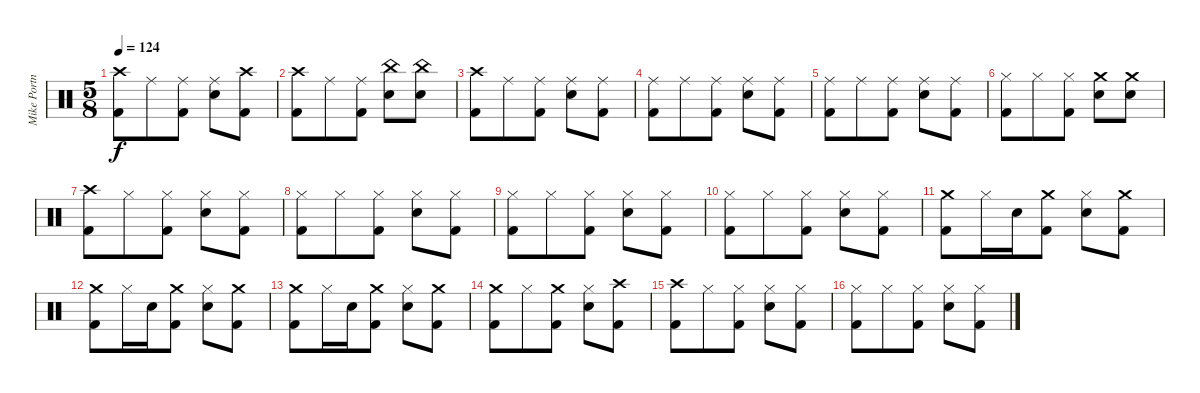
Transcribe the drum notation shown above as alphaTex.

\track ("Mike Portnoy - Drums" "Mike Portn") {instrument percussion}
\staff {score}
\articulation defaults
\ts (5 8)
\tempo 124
\clef neutral
\ks c
("Crash high (hit)" "Kick (hit) 2").8{dy f} "Ride (middle)".8 ("Ride (middle)" "Kick (hit) 2").8 ("Ride (middle)" "Electric Snare (hit)").8 ("Crash high (hit)" "Kick (hit) 2").8 |
("Crash high (hit)" "Kick (hit) 2").8 "Ride (middle)".8 ("Ride (middle)" "Kick (hit) 2").8 ("China (hit)" "Electric Snare (hit)").8 ("China (hit)" "Electric Snare (hit)").8 |
("Crash high (hit)" "Kick (hit) 2").8 "Ride (middle)".8 ("Ride (middle)" "Kick (hit) 2").8 ("Ride (middle)" "Electric Snare (hit)").8 ("Ride (middle)" "Kick (hit) 2").8 |
("Ride (middle)" "Kick (hit) 2").8 "Ride (middle)".8 ("Ride (middle)" "Kick (hit) 2").8 ("Ride (middle)" "Electric Snare (hit)").8 ("Ride (middle)" "Kick (hit) 2").8 |
("Ride (middle)" "Kick (hit) 2").8 "Ride (middle)".8 ("Ride (middle)" "Kick (hit) 2").8 ("Ride (middle)" "Electric Snare (hit)").8 ("Ride (middle)" "Kick (hit) 2").8 |
("Hi-Hat (closed)" "Kick (hit) 2").8 "Hi-Hat (closed)".8 ("Hi-Hat (closed)" "Kick (hit) 2").8 ("Crash medium (hit)" "Electric Snare (hit)").8 ("Crash medium (hit)" "Electric Snare (hit)").8 |
("Crash high (hit)" "Kick (hit) 2").8 "Hi-Hat (closed)".8 ("Hi-Hat (closed)" "Kick (hit) 2").8 ("Hi-Hat (closed)" "Electric Snare (hit)").8 ("Hi-Hat (closed)" "Kick (hit) 2").8 |
("Hi-Hat (closed)" "Kick (hit) 2").8 "Hi-Hat (closed)".8 ("Hi-Hat (closed)" "Kick (hit) 2").8 ("Hi-Hat (closed)" "Electric Snare (hit)").8 ("Hi-Hat (closed)" "Kick (hit) 2").8 |
("Hi-Hat (closed)" "Kick (hit) 2").8 "Hi-Hat (closed)".8 ("Hi-Hat (closed)" "Kick (hit) 2").8 ("Hi-Hat (closed)" "Electric Snare (hit)").8 ("Hi-Hat (closed)" "Kick (hit) 2").8 |
("Hi-Hat (closed)" "Kick (hit) 2").8 "Hi-Hat (closed)".8 ("Hi-Hat (closed)" "Kick (hit) 2").8 ("Hi-Hat (closed)" "Electric Snare (hit)").8 ("Hi-Hat (closed)" "Kick (hit) 2").8 |
("Crash medium (hit)" "Kick (hit) 2").8 "Hi-Hat (closed)".16 "Electric Snare (hit)".16 ("Crash medium (hit)" "Kick (hit) 2").8 ("Hi-Hat (closed)" "Electric Snare (hit)").8 ("Crash medium (hit)" "Kick (hit) 2").8 |
("Crash medium (hit)" "Kick (hit) 2").8 "Hi-Hat (closed)".16 "Electric Snare (hit)".16 ("Crash medium (hit)" "Kick (hit) 2").8 ("Hi-Hat (closed)" "Electric Snare (hit)").8 ("Crash medium (hit)" "Kick (hit) 2").8 |
("Crash medium (hit)" "Kick (hit) 2").8 "Hi-Hat (closed)".16 "Electric Snare (hit)".16 ("Crash medium (hit)" "Kick (hit) 2").8 ("Hi-Hat (closed)" "Electric Snare (hit)").8 ("Crash medium (hit)" "Kick (hit) 2").8 |
("Crash medium (hit)" "Kick (hit) 2").8 "Hi-Hat (closed)".8 ("Crash medium (hit)" "Kick (hit) 2").8 ("Hi-Hat (closed)" "Electric Snare (hit)").8 ("Crash high (hit)" "Kick (hit) 2").8 |
("Crash high (hit)" "Kick (hit) 2").8 "Hi-Hat (closed)".8 ("Hi-Hat (closed)" "Kick (hit) 2").8 ("Hi-Hat (closed)" "Electric Snare (hit)").8 ("Hi-Hat (closed)" "Kick (hit) 2").8 |
("Hi-Hat (closed)" "Kick (hit) 2").8 "Hi-Hat (closed)".8 ("Hi-Hat (closed)" "Kick (hit) 2").8 ("Hi-Hat (closed)" "Electric Snare (hit)").8 ("Hi-Hat (closed)" "Kick (hit) 2").8
